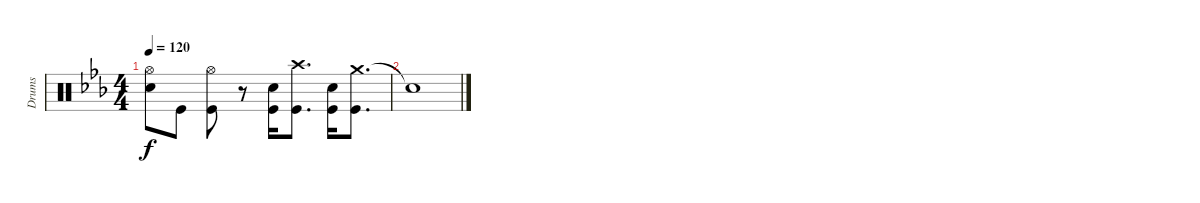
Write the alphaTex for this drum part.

\track ("Drums" "Drums") {instrument percussion}
\staff {score}
\articulation defaults
\ts (4 4)
\tempo 120
\clef neutral
\ks cminor
("Hi-Hat (open)" "Snare (hit) 2").8{dy f} "Kick (hit)".8 ("Hi-Hat (open)" "Kick (hit)").8 r.8 ("Snare (hit) 2" "Kick (hit)").16 ("Crash high (hit)" "Kick (hit)").8{d} ("Snare (hit) 2" "Kick (hit)").16 ("Crash medium (hit)" "Kick (hit)").8{d} |
"Snare (hit)"{t}.1
